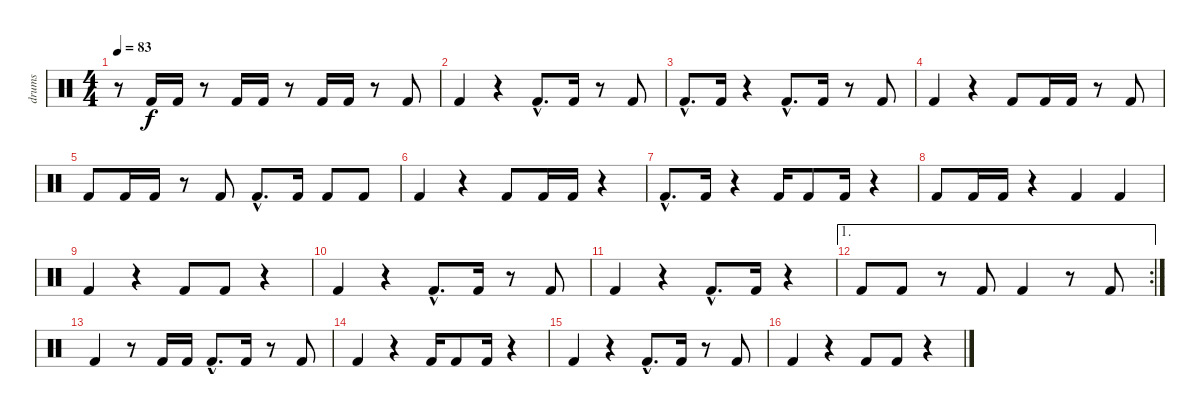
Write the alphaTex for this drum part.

\track ("drums" "drums") {instrument percussion}
\staff {score}
\articulation defaults
\ts (4 4)
\tempo 83
\clef neutral
\ks c
r.8{dy f} "Kick (hit) 2".16 "Kick (hit) 2".16 r.8 "Kick (hit) 2".16 "Kick (hit) 2".16 r.8 "Kick (hit) 2".16 "Kick (hit) 2".16 r.8 "Kick (hit) 2".8 |
"Kick (hit) 2".4 r.4 "Kick (hit) 2"{hac}.8{d} "Kick (hit) 2".16 r.8 "Kick (hit) 2".8 |
"Kick (hit) 2"{hac}.8{d} "Kick (hit) 2".16 r.4 "Kick (hit) 2"{hac}.8{d} "Kick (hit) 2".16 r.8 "Kick (hit) 2".8 |
"Kick (hit) 2".4 r.4 "Kick (hit) 2".8 "Kick (hit) 2".16 "Kick (hit) 2".16 r.8 "Kick (hit) 2".8 |
"Kick (hit) 2".8 "Kick (hit) 2".16 "Kick (hit) 2".16 r.8 "Kick (hit) 2".8 "Kick (hit) 2"{hac}.8{d} "Kick (hit) 2".16 "Kick (hit) 2".8 "Kick (hit) 2".8 |
"Kick (hit) 2".4 r.4 "Kick (hit) 2".8 "Kick (hit) 2".16 "Kick (hit) 2".16 r.4 |
"Kick (hit) 2"{hac}.8{d} "Kick (hit) 2".16 r.4 "Kick (hit) 2".16 "Kick (hit) 2".8 "Kick (hit) 2".16 r.4 |
"Kick (hit) 2".8 "Kick (hit) 2".16 "Kick (hit) 2".16 r.4 "Kick (hit) 2".4 "Kick (hit) 2".4 |
"Kick (hit) 2".4 r.4 "Kick (hit) 2".8 "Kick (hit) 2".8 r.4 |
"Kick (hit) 2".4 r.4 "Kick (hit) 2"{hac}.8{d} "Kick (hit) 2".16 r.8 "Kick (hit) 2".8 |
"Kick (hit) 2".4 r.4 "Kick (hit) 2"{hac}.8{d} "Kick (hit) 2".16 r.4 |
\ae 1
\rc 2 "Kick (hit) 2".8 "Kick (hit) 2".8
r.8 "Kick (hit) 2".8 "Kick (hit) 2".4 r.8 "Kick (hit) 2".8 |
"Kick (hit) 2".4 r.8 "Kick (hit) 2".16 "Kick (hit) 2".16 "Kick (hit) 2"{hac}.8{d} "Kick (hit) 2".16 r.8 "Kick (hit) 2".8 |
"Kick (hit) 2".4 r.4 "Kick (hit) 2".16 "Kick (hit) 2".8 "Kick (hit) 2".16 r.4 |
"Kick (hit) 2".4 r.4 "Kick (hit) 2"{hac}.8{d} "Kick (hit) 2".16 r.8 "Kick (hit) 2".8 |
"Kick (hit) 2".4 r.4 "Kick (hit) 2".8 "Kick (hit) 2".8 r.4
